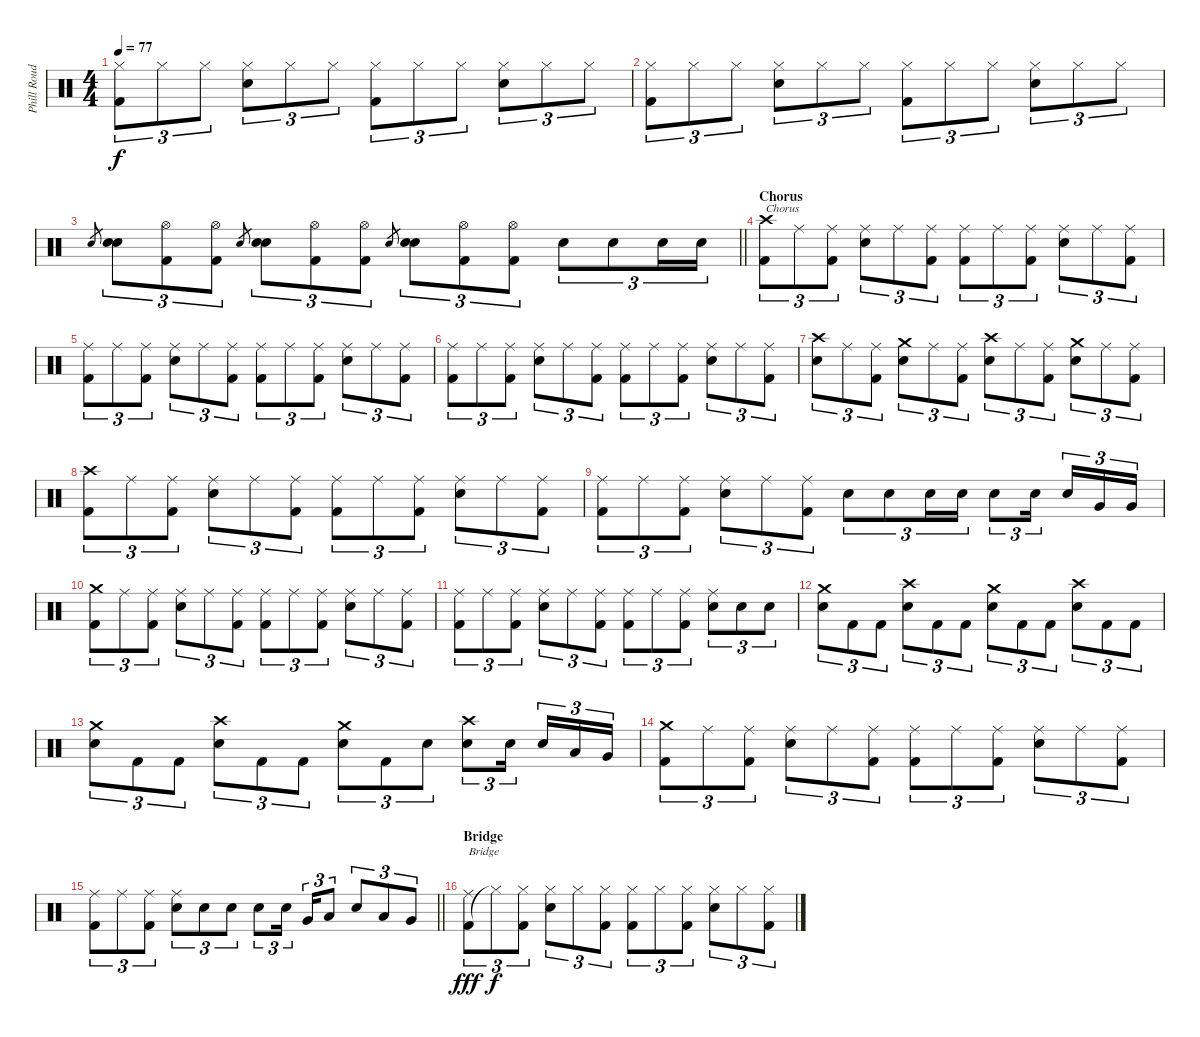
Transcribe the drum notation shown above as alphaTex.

\track ("Phill Roud" "Phill Roud") {instrument percussion}
\staff {score}
\articulation defaults
\ts (4 4)
\tempo 77
\clef neutral
\ks c
("Kick (hit) 2" "Hi-Hat (closed)").8{tu (3 2) dy f} "Hi-Hat (closed)".8{tu (3 2)} "Hi-Hat (closed)".8{tu (3 2)} ("Electric Snare (hit)" "Hi-Hat (closed)").8{tu (3 2)} "Hi-Hat (closed)".8{tu (3 2)} "Hi-Hat (closed)".8{tu (3 2)} ("Kick (hit) 2" "Hi-Hat (closed)").8{tu (3 2)} "Hi-Hat (closed)".8{tu (3 2)} "Hi-Hat (closed)".8{tu (3 2)} ("Electric Snare (hit)" "Hi-Hat (closed)").8{tu (3 2)} "Hi-Hat (closed)".8{tu (3 2)} "Hi-Hat (closed)".8{tu (3 2)} |
("Kick (hit) 2" "Hi-Hat (closed)").8{tu (3 2)} "Hi-Hat (closed)".8{tu (3 2)} "Hi-Hat (closed)".8{tu (3 2)} ("Electric Snare (hit)" "Hi-Hat (closed)").8{tu (3 2)} "Hi-Hat (closed)".8{tu (3 2)} "Hi-Hat (closed)".8{tu (3 2)} ("Kick (hit) 2" "Hi-Hat (closed)").8{tu (3 2)} "Hi-Hat (closed)".8{tu (3 2)} "Hi-Hat (closed)".8{tu (3 2)} ("Electric Snare (hit)" "Hi-Hat (closed)").8{tu (3 2)} "Hi-Hat (closed)".8{tu (3 2)} "Hi-Hat (closed)".8{tu (3 2)} |
\barLineRight lightlight "Electric Snare (hit)".8{gr}
("Electric Snare (hit)" "Electric Snare (hit)").8{tu (3 2)} ("Kick (hit) 2" "Hi-Hat (open)").8{tu (3 2)} ("Kick (hit) 2" "Hi-Hat (open)").8{tu (3 2)} "Electric Snare (hit)".8{gr} ("Electric Snare (hit)" "Electric Snare (hit)").8{tu (3 2)} ("Kick (hit) 2" "Hi-Hat (open)").8{tu (3 2)} ("Kick (hit) 2" "Hi-Hat (open)").8{tu (3 2)} "Electric Snare (hit)".8{gr} ("Electric Snare (hit)" "Electric Snare (hit)").8{tu (3 2)} ("Kick (hit) 2" "Hi-Hat (open)").8{tu (3 2)} ("Kick (hit) 2" "Hi-Hat (open)").8{tu (3 2)} "Electric Snare (hit)".8{tu (3 2)} "Electric Snare (hit)".8{tu (3 2)} "Electric Snare (hit)".16{tu (3 2)} "Electric Snare (hit)".16{tu (3 2)} |
\section ("" "Chorus")
("Kick (hit) 2" "Crash high (hit)").8{tu (3 2) txt "Chorus"} "Ride (middle)".8{tu (3 2)} ("Kick (hit) 2" "Ride (middle)").8{tu (3 2)} ("Electric Snare (hit)" "Ride (middle)").8{tu (3 2)} "Ride (middle)".8{tu (3 2)} ("Kick (hit) 2" "Ride (middle)").8{tu (3 2)} ("Kick (hit) 2" "Ride (middle)").8{tu (3 2)} "Ride (middle)".8{tu (3 2)} ("Kick (hit) 2" "Ride (middle)").8{tu (3 2)} ("Electric Snare (hit)" "Ride (middle)").8{tu (3 2)} "Ride (middle)".8{tu (3 2)} ("Kick (hit) 2" "Ride (middle)").8{tu (3 2)} |
("Kick (hit) 2" "Ride (middle)").8{tu (3 2)} "Ride (middle)".8{tu (3 2)} ("Kick (hit) 2" "Ride (middle)").8{tu (3 2)} ("Electric Snare (hit)" "Ride (middle)").8{tu (3 2)} "Ride (middle)".8{tu (3 2)} ("Kick (hit) 2" "Ride (middle)").8{tu (3 2)} ("Kick (hit) 2" "Ride (middle)").8{tu (3 2)} "Ride (middle)".8{tu (3 2)} ("Kick (hit) 2" "Ride (middle)").8{tu (3 2)} ("Electric Snare (hit)" "Ride (middle)").8{tu (3 2)} "Ride (middle)".8{tu (3 2)} ("Kick (hit) 2" "Ride (middle)").8{tu (3 2)} |
("Kick (hit) 2" "Ride (middle)").8{tu (3 2)} "Ride (middle)".8{tu (3 2)} ("Kick (hit) 2" "Ride (middle)").8{tu (3 2)} ("Electric Snare (hit)" "Ride (middle)").8{tu (3 2)} "Ride (middle)".8{tu (3 2)} ("Kick (hit) 2" "Ride (middle)").8{tu (3 2)} ("Kick (hit) 2" "Ride (middle)").8{tu (3 2)} "Ride (middle)".8{tu (3 2)} ("Kick (hit) 2" "Ride (middle)").8{tu (3 2)} ("Electric Snare (hit)" "Ride (middle)").8{tu (3 2)} "Ride (middle)".8{tu (3 2)} ("Kick (hit) 2" "Ride (middle)").8{tu (3 2)} |
("Electric Snare (hit)" "Crash high (hit)").8{tu (3 2)} "Ride (middle)".8{tu (3 2)} ("Kick (hit) 2" "Ride (middle)").8{tu (3 2)} ("Electric Snare (hit)" "Crash medium (hit)").8{tu (3 2)} "Ride (middle)".8{tu (3 2)} ("Kick (hit) 2" "Ride (middle)").8{tu (3 2)} ("Electric Snare (hit)" "Crash high (hit)").8{tu (3 2)} "Ride (middle)".8{tu (3 2)} ("Kick (hit) 2" "Ride (middle)").8{tu (3 2)} ("Electric Snare (hit)" "Crash medium (hit)").8{tu (3 2)} "Ride (middle)".8{tu (3 2)} ("Kick (hit) 2" "Ride (middle)").8{tu (3 2)} |
("Kick (hit) 2" "Crash high (hit)").8{tu (3 2)} "Ride (middle)".8{tu (3 2)} ("Kick (hit) 2" "Ride (middle)").8{tu (3 2)} ("Electric Snare (hit)" "Ride (middle)").8{tu (3 2)} "Ride (middle)".8{tu (3 2)} ("Kick (hit) 2" "Ride (middle)").8{tu (3 2)} ("Kick (hit) 2" "Ride (middle)").8{tu (3 2)} "Ride (middle)".8{tu (3 2)} ("Kick (hit) 2" "Ride (middle)").8{tu (3 2)} ("Electric Snare (hit)" "Ride (middle)").8{tu (3 2)} "Ride (middle)".8{tu (3 2)} ("Kick (hit) 2" "Ride (middle)").8{tu (3 2)} |
("Kick (hit) 2" "Ride (middle)").8{tu (3 2)} "Ride (middle)".8{tu (3 2)} ("Kick (hit) 2" "Ride (middle)").8{tu (3 2)} ("Electric Snare (hit)" "Ride (middle)").8{tu (3 2)} "Ride (middle)".8{tu (3 2)} ("Kick (hit) 2" "Ride (middle)").8{tu (3 2)} "Electric Snare (hit)".8{tu (3 2)} "Electric Snare (hit)".8{tu (3 2)} "Electric Snare (hit)".16{tu (3 2)} "Electric Snare (hit)".16{tu (3 2)} "Electric Snare (hit)".8{tu (3 2)} "Electric Snare (hit)".16{tu (3 2) beam splitsecondary} "Electric Snare (hit)".16{tu (3 2)} "Very Low Tom (hit)".16{tu (3 2)} "Very Low Tom (hit)".16{tu (3 2)} |
("Kick (hit) 2" "Crash medium (hit)").8{tu (3 2)} "Ride (middle)".8{tu (3 2)} ("Kick (hit) 2" "Ride (middle)").8{tu (3 2)} ("Electric Snare (hit)" "Ride (middle)").8{tu (3 2)} "Ride (middle)".8{tu (3 2)} ("Kick (hit) 2" "Ride (middle)").8{tu (3 2)} ("Kick (hit) 2" "Ride (middle)").8{tu (3 2)} "Ride (middle)".8{tu (3 2)} ("Kick (hit) 2" "Ride (middle)").8{tu (3 2)} ("Electric Snare (hit)" "Ride (middle)").8{tu (3 2)} "Ride (middle)".8{tu (3 2)} ("Kick (hit) 2" "Ride (middle)").8{tu (3 2)} |
("Kick (hit) 2" "Ride (middle)").8{tu (3 2)} "Ride (middle)".8{tu (3 2)} ("Kick (hit) 2" "Ride (middle)").8{tu (3 2)} ("Electric Snare (hit)" "Ride (middle)").8{tu (3 2)} "Ride (middle)".8{tu (3 2)} ("Kick (hit) 2" "Ride (middle)").8{tu (3 2)} ("Kick (hit) 2" "Ride (middle)").8{tu (3 2)} "Ride (middle)".8{tu (3 2)} ("Kick (hit) 2" "Ride (middle)").8{tu (3 2)} ("Electric Snare (hit)" "Ride (middle)").8{tu (3 2)} "Electric Snare (hit)".8{tu (3 2)} "Electric Snare (hit)".8{tu (3 2)} |
("Electric Snare (hit)" "Crash medium (hit)").8{tu (3 2)} "Kick (hit) 2".8{tu (3 2)} "Kick (hit) 2".8{tu (3 2)} ("Electric Snare (hit)" "Crash high (hit)").8{tu (3 2)} "Kick (hit) 2".8{tu (3 2)} "Kick (hit) 2".8{tu (3 2)} ("Electric Snare (hit)" "Crash medium (hit)").8{tu (3 2)} "Kick (hit) 2".8{tu (3 2)} "Kick (hit) 2".8{tu (3 2)} ("Electric Snare (hit)" "Crash high (hit)").8{tu (3 2)} "Kick (hit) 2".8{tu (3 2)} "Kick (hit) 2".8{tu (3 2)} |
("Electric Snare (hit)" "Crash medium (hit)").8{tu (3 2)} "Kick (hit) 2".8{tu (3 2)} "Kick (hit) 2".8{tu (3 2)} ("Electric Snare (hit)" "Crash high (hit)").8{tu (3 2)} "Kick (hit) 2".8{tu (3 2)} "Kick (hit) 2".8{tu (3 2)} ("Electric Snare (hit)" "Crash medium (hit)").8{tu (3 2)} "Kick (hit) 2".8{tu (3 2)} "Electric Snare (hit)".8{tu (3 2)} ("Electric Snare (hit)" "Crash high (hit)").8{tu (3 2)} "Electric Snare (hit)".16{tu (3 2) beam splitsecondary} "Electric Snare (hit)".16{tu (3 2)} "Low Tom (hit)".16{tu (3 2)} "Very Low Tom (hit)".16{tu (3 2)} |
("Kick (hit) 2" "Crash medium (hit)").8{tu (3 2)} "Ride (middle)".8{tu (3 2)} ("Kick (hit) 2" "Ride (middle)").8{tu (3 2)} ("Electric Snare (hit)" "Ride (middle)").8{tu (3 2)} "Ride (middle)".8{tu (3 2)} ("Kick (hit) 2" "Ride (middle)").8{tu (3 2)} ("Kick (hit) 2" "Ride (middle)").8{tu (3 2)} "Ride (middle)".8{tu (3 2)} ("Kick (hit) 2" "Ride (middle)").8{tu (3 2)} ("Electric Snare (hit)" "Ride (middle)").8{tu (3 2)} "Ride (middle)".8{tu (3 2)} ("Kick (hit) 2" "Ride (middle)").8{tu (3 2)} |
\barLineRight lightlight
("Kick (hit) 2" "Ride (middle)").8{tu (3 2)} "Ride (middle)".8{tu (3 2)} ("Kick (hit) 2" "Ride (middle)").8{tu (3 2)} ("Electric Snare (hit)" "Ride (middle)").8{tu (3 2)} "Electric Snare (hit)".8{tu (3 2)} "Electric Snare (hit)".8{tu (3 2)} "Electric Snare (hit)".8{tu (3 2)} "Electric Snare (hit)".16{tu (3 2) beam splitsecondary} "Very Low Tom (hit)".16{tu (3 2)} "Low Floor Tom (hit)".8{tu (3 2)} "Electric Snare (hit)".8{tu (3 2)} "Low Tom (hit)".8{tu (3 2)} "Very Low Tom (hit)".8{tu (3 2)} |
\section ("" "Bridge")
("Kick (hit) 2" "Ride (middle)").8{tu (3 2) txt "Bridge" dy fff} "Hi-Hat (closed)"{t}.8{tu (3 2) dy f} ("Kick (hit) 2" "Hi-Hat (closed)").8{tu (3 2)} ("Electric Snare (hit)" "Hi-Hat (closed)").8{tu (3 2)} "Hi-Hat (closed)".8{tu (3 2)} ("Kick (hit) 2" "Hi-Hat (closed)").8{tu (3 2)} ("Kick (hit) 2" "Hi-Hat (closed)").8{tu (3 2)} "Hi-Hat (closed)".8{tu (3 2)} ("Kick (hit) 2" "Hi-Hat (closed)").8{tu (3 2)} ("Electric Snare (hit)" "Hi-Hat (closed)").8{tu (3 2)} "Hi-Hat (closed)".8{tu (3 2)} ("Kick (hit) 2" "Hi-Hat (closed)").8{tu (3 2)}
